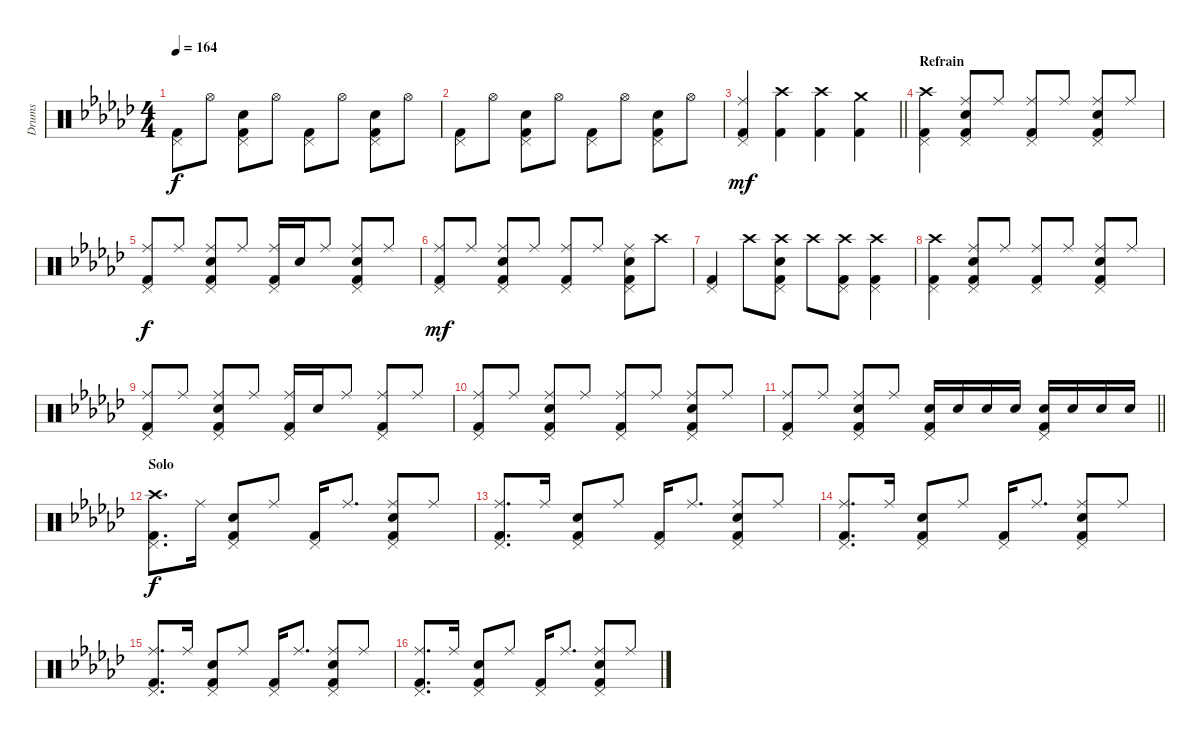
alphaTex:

\track ("Drums" "Drums") {instrument percussion}
\staff {score}
\articulation defaults
\ts (4 4)
\tempo 164
\clef neutral
\ks gb
("Pedal Hi-Hat (hit)" "Kick (hit) 2").8{dy f} "Hi-Hat (open)".8 ("Snare (hit) 2" "Pedal Hi-Hat (hit)" "Kick (hit) 2").8 "Hi-Hat (open)".8 ("Pedal Hi-Hat (hit)" "Kick (hit) 2").8 "Hi-Hat (open)".8 ("Snare (hit) 2" "Pedal Hi-Hat (hit)" "Kick (hit) 2").8 "Hi-Hat (open)".8 |
("Pedal Hi-Hat (hit)" "Kick (hit) 2").8 "Hi-Hat (open)".8 ("Snare (hit) 2" "Pedal Hi-Hat (hit)" "Kick (hit) 2").8 "Hi-Hat (open)".8 ("Pedal Hi-Hat (hit)" "Kick (hit) 2").8 "Hi-Hat (open)".8 ("Snare (hit) 2" "Pedal Hi-Hat (hit)" "Kick (hit) 2").8 "Hi-Hat (open)".8 |
\barLineRight lightlight
("Ride (middle)" "Pedal Hi-Hat (hit)" "Kick (hit) 2").4{dy mf} ("Crash high (hit)" "Kick (hit) 2").4 ("Crash high (hit)" "Kick (hit) 2").4 ("Crash medium (hit)" "Kick (hit) 2").4 |
\section ("" "Refrain")
("Crash high (hit)" "Pedal Hi-Hat (hit)" "Kick (hit) 2").4 ("Ride (middle)" "Snare (hit) 2" "Pedal Hi-Hat (hit)" "Kick (hit) 2").8 "Ride (middle)".8 ("Ride (middle)" "Pedal Hi-Hat (hit)" "Kick (hit) 2").8 "Ride (middle)".8 ("Ride (middle)" "Snare (hit) 2" "Pedal Hi-Hat (hit)" "Kick (hit) 2").8 "Ride (middle)".8 |
("Ride (middle)" "Pedal Hi-Hat (hit)" "Kick (hit) 2").8{dy f} "Ride (middle)".8 ("Ride (middle)" "Snare (hit) 2" "Pedal Hi-Hat (hit)" "Kick (hit) 2").8 "Ride (middle)".8 ("Ride (middle)" "Pedal Hi-Hat (hit)" "Kick (hit) 2").16 "Snare (hit) 2".16 "Ride (middle)".8 ("Ride (middle)" "Snare (hit) 2" "Pedal Hi-Hat (hit)" "Kick (hit) 2").8 "Ride (middle)".8 |
("Ride (middle)" "Pedal Hi-Hat (hit)" "Kick (hit) 2").8{dy mf} "Ride (middle)".8 ("Ride (middle)" "Snare (hit) 2" "Pedal Hi-Hat (hit)" "Kick (hit) 2").8 "Ride (middle)".8 ("Ride (middle)" "Pedal Hi-Hat (hit)" "Kick (hit) 2").8 "Ride (middle)".8 ("Ride (middle)" "Snare (hit) 2" "Pedal Hi-Hat (hit)" "Kick (hit) 2").8 "Crash high (hit)".8 |
("Pedal Hi-Hat (hit)" "Kick (hit) 2").4 "Crash high (hit)".8 ("Crash high (hit)" "Snare (hit) 2" "Pedal Hi-Hat (hit)" "Kick (hit) 2").8 "Crash high (hit)".8 ("Crash high (hit)" "Pedal Hi-Hat (hit)" "Kick (hit) 2").8 ("Crash high (hit)" "Pedal Hi-Hat (hit)" "Kick (hit) 2").4 |
("Crash high (hit)" "Pedal Hi-Hat (hit)" "Kick (hit) 2").4 ("Ride (middle)" "Snare (hit) 2" "Pedal Hi-Hat (hit)" "Kick (hit) 2").8 "Ride (middle)".8 ("Ride (middle)" "Pedal Hi-Hat (hit)" "Kick (hit) 2").8 "Ride (middle)".8 ("Ride (middle)" "Snare (hit) 2" "Pedal Hi-Hat (hit)" "Kick (hit) 2").8 "Ride (middle)".8 |
("Ride (middle)" "Pedal Hi-Hat (hit)" "Kick (hit) 2").8 "Ride (middle)".8 ("Ride (middle)" "Snare (hit) 2" "Pedal Hi-Hat (hit)" "Kick (hit) 2").8 "Ride (middle)".8 ("Ride (middle)" "Pedal Hi-Hat (hit)" "Kick (hit) 2").16 "Snare (hit) 2".16 "Ride (middle)".8 ("Ride (middle)" "Pedal Hi-Hat (hit)" "Kick (hit) 2").8 "Ride (middle)".8 |
("Ride (middle)" "Pedal Hi-Hat (hit)" "Kick (hit) 2").8 "Ride (middle)".8 ("Ride (middle)" "Snare (hit) 2" "Pedal Hi-Hat (hit)" "Kick (hit) 2").8 "Ride (middle)".8 ("Ride (middle)" "Pedal Hi-Hat (hit)" "Kick (hit) 2").8 "Ride (middle)".8 ("Ride (middle)" "Snare (hit) 2" "Pedal Hi-Hat (hit)" "Kick (hit) 2").8 "Ride (middle)".8 |
\barLineRight lightlight
("Ride (middle)" "Pedal Hi-Hat (hit)" "Kick (hit) 2").8 "Ride (middle)".8 ("Ride (middle)" "Snare (hit) 2" "Pedal Hi-Hat (hit)" "Kick (hit) 2").8 "Ride (middle)".8 ("Snare (hit) 2" "Pedal Hi-Hat (hit)" "Kick (hit) 2").16 "Snare (hit) 2".16 "Snare (hit) 2".16 "Snare (hit) 2".16 ("Snare (hit) 2" "Pedal Hi-Hat (hit)" "Kick (hit) 2").16 "Snare (hit) 2".16 "Snare (hit) 2".16 "Snare (hit) 2".16 |
\section ("" "Solo")
("Crash high (hit)" "Pedal Hi-Hat (hit)" "Kick (hit) 2").8{d dy f} "Ride (middle)".16 ("Snare (hit) 2" "Pedal Hi-Hat (hit)" "Kick (hit) 2").8 "Ride (middle)".8 ("Pedal Hi-Hat (hit)" "Kick (hit) 2").16 "Ride (middle)".8{d} ("Ride (middle)" "Snare (hit) 2" "Pedal Hi-Hat (hit)" "Kick (hit) 2").8 "Ride (middle)".8 |
("Ride (middle)" "Pedal Hi-Hat (hit)" "Kick (hit) 2").8{d} "Ride (middle)".16 ("Snare (hit) 2" "Pedal Hi-Hat (hit)" "Kick (hit) 2").8 "Ride (middle)".8 ("Pedal Hi-Hat (hit)" "Kick (hit) 2").16 "Ride (middle)".8{d} ("Ride (middle)" "Snare (hit) 2" "Pedal Hi-Hat (hit)" "Kick (hit) 2").8 "Ride (middle)".8 |
("Ride (middle)" "Pedal Hi-Hat (hit)" "Kick (hit) 2").8{d} "Ride (middle)".16 ("Snare (hit) 2" "Pedal Hi-Hat (hit)" "Kick (hit) 2").8 "Ride (middle)".8 ("Pedal Hi-Hat (hit)" "Kick (hit) 2").16 "Ride (middle)".8{d} ("Ride (middle)" "Snare (hit) 2" "Pedal Hi-Hat (hit)" "Kick (hit) 2").8 "Ride (middle)".8 |
("Ride (middle)" "Pedal Hi-Hat (hit)" "Kick (hit) 2").8{d} "Ride (middle)".16 ("Snare (hit) 2" "Pedal Hi-Hat (hit)" "Kick (hit) 2").8 "Ride (middle)".8 ("Pedal Hi-Hat (hit)" "Kick (hit) 2").16 "Ride (middle)".8{d} ("Ride (middle)" "Snare (hit) 2" "Pedal Hi-Hat (hit)" "Kick (hit) 2").8 "Ride (middle)".8 |
("Ride (middle)" "Pedal Hi-Hat (hit)" "Kick (hit) 2").8{d} "Ride (middle)".16 ("Snare (hit) 2" "Pedal Hi-Hat (hit)" "Kick (hit) 2").8 "Ride (middle)".8 ("Pedal Hi-Hat (hit)" "Kick (hit) 2").16 "Ride (middle)".8{d} ("Ride (middle)" "Snare (hit) 2" "Pedal Hi-Hat (hit)" "Kick (hit) 2").8 "Ride (middle)".8
